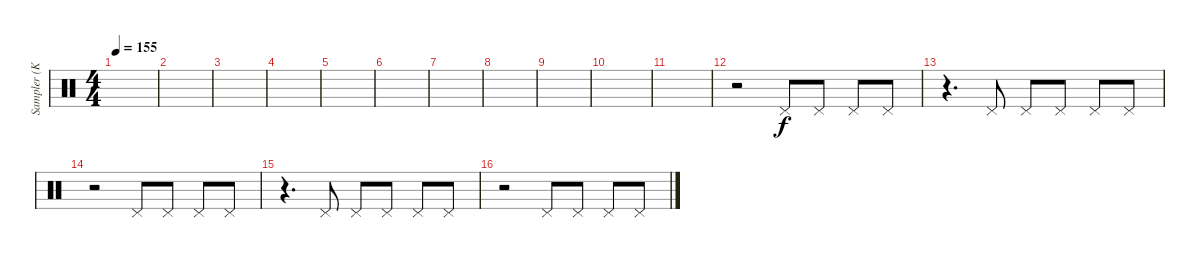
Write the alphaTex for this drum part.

\track ("Sampler (Korg Radias)" "Sampler (K") {instrument percussion}
\staff {score}
\articulation defaults
\ts (4 4)
\tempo 155
\clef neutral
\ks c
|
|
|
|
|
|
|
|
|
|
|
r.2 "Pedal Hi-Hat (hit)".8 "Pedal Hi-Hat (hit)".8 "Pedal Hi-Hat (hit)".8 "Pedal Hi-Hat (hit)".8 |
r.4{d} "Pedal Hi-Hat (hit)".8 "Pedal Hi-Hat (hit)".8 "Pedal Hi-Hat (hit)".8 "Pedal Hi-Hat (hit)".8 "Pedal Hi-Hat (hit)".8 |
r.2 "Pedal Hi-Hat (hit)".8 "Pedal Hi-Hat (hit)".8 "Pedal Hi-Hat (hit)".8 "Pedal Hi-Hat (hit)".8 |
r.4{d} "Pedal Hi-Hat (hit)".8 "Pedal Hi-Hat (hit)".8 "Pedal Hi-Hat (hit)".8 "Pedal Hi-Hat (hit)".8 "Pedal Hi-Hat (hit)".8 |
r.2 "Pedal Hi-Hat (hit)".8 "Pedal Hi-Hat (hit)".8 "Pedal Hi-Hat (hit)".8 "Pedal Hi-Hat (hit)".8
